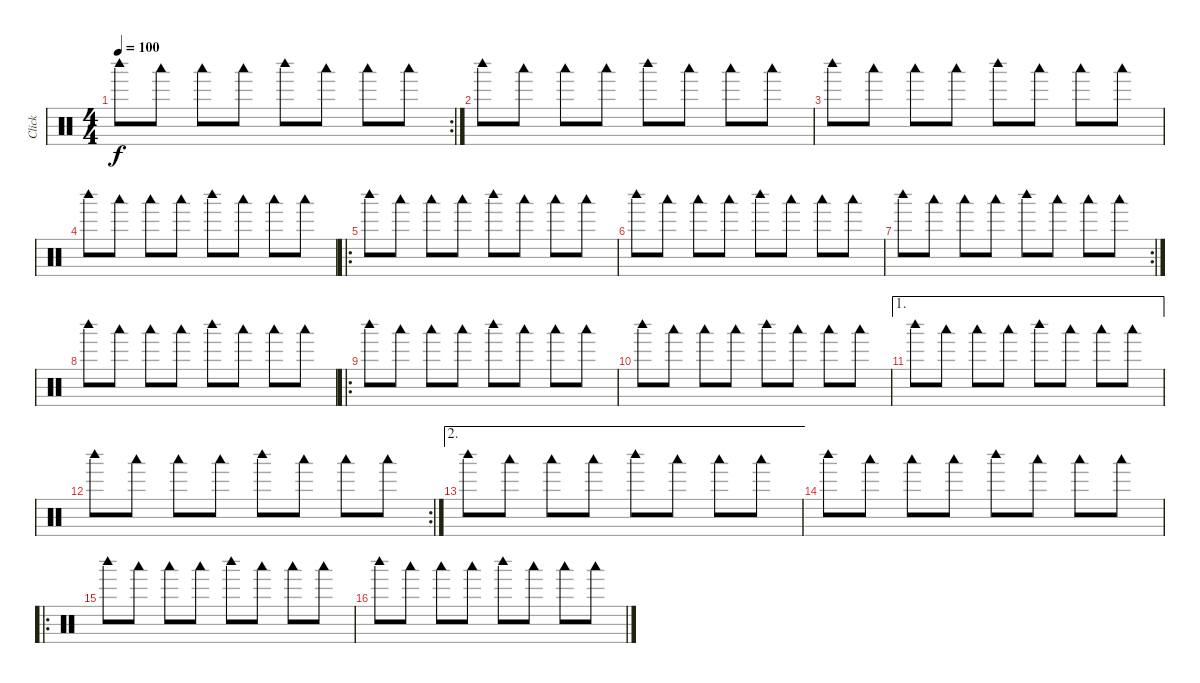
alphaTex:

\track ("Click" "Click") {mute instrument percussion}
\staff {score}
\articulation defaults
\rc 2
\ts (4 4)
\tempo 100
\clef neutral
\ks c "Woodblock high (hit)".8{dy f} "Woodblock low (hit)".8 "Woodblock low (hit)".8 "Woodblock low (hit)".8 "Woodblock high (hit)".8 "Woodblock low (hit)".8 "Woodblock low (hit)".8 "Woodblock low (hit)".8
|
"Woodblock high (hit)".8 "Woodblock low (hit)".8 "Woodblock low (hit)".8 "Woodblock low (hit)".8 "Woodblock high (hit)".8 "Woodblock low (hit)".8 "Woodblock low (hit)".8 "Woodblock low (hit)".8 |
"Woodblock high (hit)".8 "Woodblock low (hit)".8 "Woodblock low (hit)".8 "Woodblock low (hit)".8 "Woodblock high (hit)".8 "Woodblock low (hit)".8 "Woodblock low (hit)".8 "Woodblock low (hit)".8 |
"Woodblock high (hit)".8 "Woodblock low (hit)".8 "Woodblock low (hit)".8 "Woodblock low (hit)".8 "Woodblock high (hit)".8 "Woodblock low (hit)".8 "Woodblock low (hit)".8 "Woodblock low (hit)".8 |
\ro "Woodblock high (hit)".8 "Woodblock low (hit)".8 "Woodblock low (hit)".8 "Woodblock low (hit)".8 "Woodblock high (hit)".8 "Woodblock low (hit)".8 "Woodblock low (hit)".8 "Woodblock low (hit)".8
|
"Woodblock high (hit)".8 "Woodblock low (hit)".8 "Woodblock low (hit)".8 "Woodblock low (hit)".8 "Woodblock high (hit)".8 "Woodblock low (hit)".8 "Woodblock low (hit)".8 "Woodblock low (hit)".8 |
\rc 2 "Woodblock high (hit)".8 "Woodblock low (hit)".8 "Woodblock low (hit)".8 "Woodblock low (hit)".8 "Woodblock high (hit)".8 "Woodblock low (hit)".8 "Woodblock low (hit)".8 "Woodblock low (hit)".8
|
"Woodblock high (hit)".8 "Woodblock low (hit)".8 "Woodblock low (hit)".8 "Woodblock low (hit)".8 "Woodblock high (hit)".8 "Woodblock low (hit)".8 "Woodblock low (hit)".8 "Woodblock low (hit)".8 |
\ro "Woodblock high (hit)".8 "Woodblock low (hit)".8 "Woodblock low (hit)".8 "Woodblock low (hit)".8 "Woodblock high (hit)".8 "Woodblock low (hit)".8 "Woodblock low (hit)".8 "Woodblock low (hit)".8
|
"Woodblock high (hit)".8 "Woodblock low (hit)".8 "Woodblock low (hit)".8 "Woodblock low (hit)".8 "Woodblock high (hit)".8 "Woodblock low (hit)".8 "Woodblock low (hit)".8 "Woodblock low (hit)".8 |
\ae 1 "Woodblock high (hit)".8 "Woodblock low (hit)".8 "Woodblock low (hit)".8 "Woodblock low (hit)".8 "Woodblock high (hit)".8 "Woodblock low (hit)".8 "Woodblock low (hit)".8 "Woodblock low (hit)".8
|
\rc 2 "Woodblock high (hit)".8 "Woodblock low (hit)".8 "Woodblock low (hit)".8 "Woodblock low (hit)".8 "Woodblock high (hit)".8 "Woodblock low (hit)".8 "Woodblock low (hit)".8 "Woodblock low (hit)".8
|
\ae 2 "Woodblock high (hit)".8 "Woodblock low (hit)".8 "Woodblock low (hit)".8 "Woodblock low (hit)".8 "Woodblock high (hit)".8 "Woodblock low (hit)".8 "Woodblock low (hit)".8 "Woodblock low (hit)".8
|
"Woodblock high (hit)".8 "Woodblock low (hit)".8 "Woodblock low (hit)".8 "Woodblock low (hit)".8 "Woodblock high (hit)".8 "Woodblock low (hit)".8 "Woodblock low (hit)".8 "Woodblock low (hit)".8 |
\ro "Woodblock high (hit)".8 "Woodblock low (hit)".8 "Woodblock low (hit)".8 "Woodblock low (hit)".8 "Woodblock high (hit)".8 "Woodblock low (hit)".8 "Woodblock low (hit)".8 "Woodblock low (hit)".8
|
"Woodblock high (hit)".8 "Woodblock low (hit)".8 "Woodblock low (hit)".8 "Woodblock low (hit)".8 "Woodblock high (hit)".8 "Woodblock low (hit)".8 "Woodblock low (hit)".8 "Woodblock low (hit)".8
